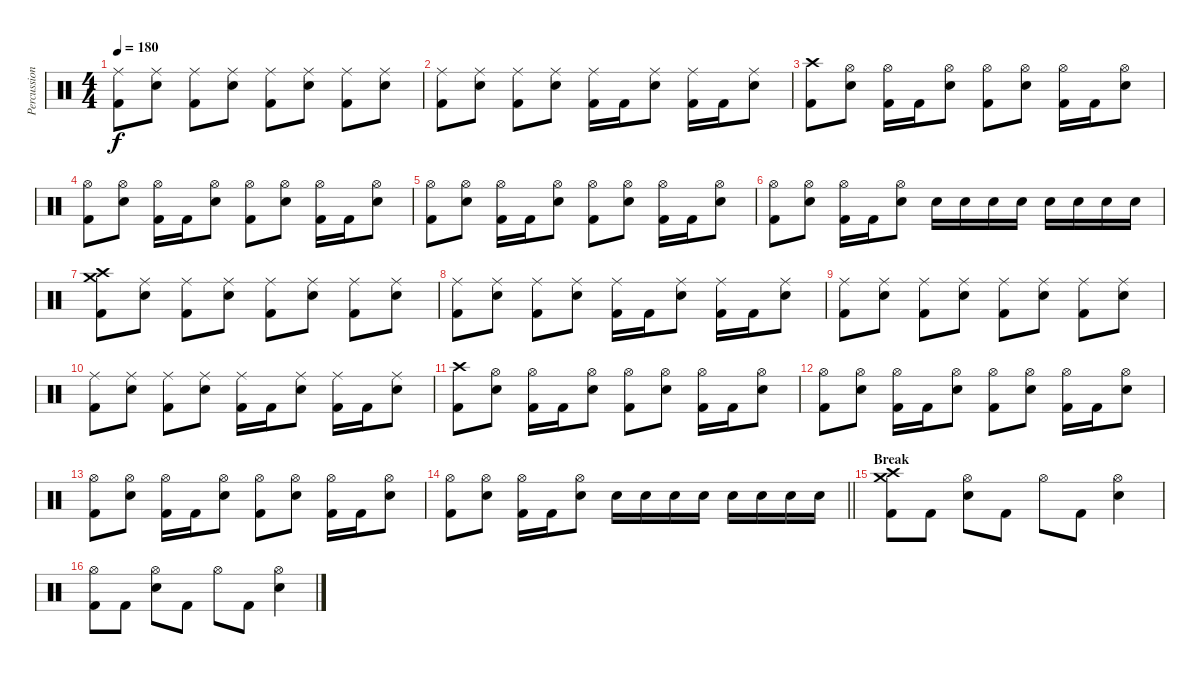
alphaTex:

\track ("Percussion" "Percussion") {instrument percussion}
\staff {score}
\articulation defaults
\ts (4 4)
\tempo 180
\clef neutral
\ks c
("Ride (middle)" "Kick (hit) 2").8{dy f} ("Ride (middle)" "Electric Snare (hit)").8 ("Ride (middle)" "Kick (hit) 2").8 ("Ride (middle)" "Electric Snare (hit)").8 ("Ride (middle)" "Kick (hit) 2").8 ("Ride (middle)" "Electric Snare (hit)").8 ("Ride (middle)" "Kick (hit) 2").8 ("Ride (middle)" "Electric Snare (hit)").8 |
("Ride (middle)" "Kick (hit) 2").8 ("Ride (middle)" "Electric Snare (hit)").8 ("Ride (middle)" "Kick (hit) 2").8 ("Ride (middle)" "Electric Snare (hit)").8 ("Ride (middle)" "Kick (hit) 2").16 "Kick (hit) 2".16 ("Ride (middle)" "Electric Snare (hit)").8 ("Ride (middle)" "Kick (hit) 2").16 "Kick (hit) 2".16 ("Ride (middle)" "Electric Snare (hit)").8 |
("Crash high (hit)" "Kick (hit) 2").8 ("Hi-Hat (open)" "Electric Snare (hit)").8 ("Hi-Hat (open)" "Kick (hit) 2").16 "Kick (hit) 2".16 ("Hi-Hat (open)" "Electric Snare (hit)").8 ("Hi-Hat (open)" "Kick (hit) 2").8 ("Hi-Hat (open)" "Electric Snare (hit)").8 ("Hi-Hat (open)" "Kick (hit) 2").16 "Kick (hit) 2".16 ("Hi-Hat (open)" "Electric Snare (hit)").8 |
("Hi-Hat (open)" "Kick (hit) 2").8 ("Hi-Hat (open)" "Electric Snare (hit)").8 ("Hi-Hat (open)" "Kick (hit) 2").16 "Kick (hit) 2".16 ("Hi-Hat (open)" "Electric Snare (hit)").8 ("Hi-Hat (open)" "Kick (hit) 2").8 ("Hi-Hat (open)" "Electric Snare (hit)").8 ("Hi-Hat (open)" "Kick (hit) 2").16 "Kick (hit) 2".16 ("Hi-Hat (open)" "Electric Snare (hit)").8 |
("Hi-Hat (open)" "Kick (hit) 2").8 ("Hi-Hat (open)" "Electric Snare (hit)").8 ("Hi-Hat (open)" "Kick (hit) 2").16 "Kick (hit) 2".16 ("Hi-Hat (open)" "Electric Snare (hit)").8 ("Hi-Hat (open)" "Kick (hit) 2").8 ("Hi-Hat (open)" "Electric Snare (hit)").8 ("Hi-Hat (open)" "Kick (hit) 2").16 "Kick (hit) 2".16 ("Hi-Hat (open)" "Electric Snare (hit)").8 |
("Hi-Hat (open)" "Kick (hit) 2").8 ("Hi-Hat (open)" "Electric Snare (hit)").8 ("Hi-Hat (open)" "Kick (hit) 2").16 "Kick (hit) 2".16 ("Hi-Hat (open)" "Electric Snare (hit)").8 "Electric Snare (hit)".16 "Electric Snare (hit)".16 "Electric Snare (hit)".16 "Electric Snare (hit)".16 "Electric Snare (hit)".16 "Electric Snare (hit)".16 "Electric Snare (hit)".16 "Electric Snare (hit)".16 |
("Crash high (hit)" "Crash medium (hit)" "Kick (hit) 2").8 ("Ride (middle)" "Electric Snare (hit)").8 ("Ride (middle)" "Kick (hit) 2").8 ("Ride (middle)" "Electric Snare (hit)").8 ("Ride (middle)" "Kick (hit) 2").8 ("Ride (middle)" "Electric Snare (hit)").8 ("Ride (middle)" "Kick (hit) 2").8 ("Ride (middle)" "Electric Snare (hit)").8 |
("Ride (middle)" "Kick (hit) 2").8 ("Ride (middle)" "Electric Snare (hit)").8 ("Ride (middle)" "Kick (hit) 2").8 ("Ride (middle)" "Electric Snare (hit)").8 ("Ride (middle)" "Kick (hit) 2").16 "Kick (hit) 2".16 ("Ride (middle)" "Electric Snare (hit)").8 ("Ride (middle)" "Kick (hit) 2").16 "Kick (hit) 2".16 ("Ride (middle)" "Electric Snare (hit)").8 |
("Ride (middle)" "Kick (hit) 2").8 ("Ride (middle)" "Electric Snare (hit)").8 ("Ride (middle)" "Kick (hit) 2").8 ("Ride (middle)" "Electric Snare (hit)").8 ("Ride (middle)" "Kick (hit) 2").8 ("Ride (middle)" "Electric Snare (hit)").8 ("Ride (middle)" "Kick (hit) 2").8 ("Ride (middle)" "Electric Snare (hit)").8 |
("Ride (middle)" "Kick (hit) 2").8 ("Ride (middle)" "Electric Snare (hit)").8 ("Ride (middle)" "Kick (hit) 2").8 ("Ride (middle)" "Electric Snare (hit)").8 ("Ride (middle)" "Kick (hit) 2").16 "Kick (hit) 2".16 ("Ride (middle)" "Electric Snare (hit)").8 ("Ride (middle)" "Kick (hit) 2").16 "Kick (hit) 2".16 ("Ride (middle)" "Electric Snare (hit)").8 |
("Crash high (hit)" "Kick (hit) 2").8 ("Hi-Hat (open)" "Electric Snare (hit)").8 ("Hi-Hat (open)" "Kick (hit) 2").16 "Kick (hit) 2".16 ("Hi-Hat (open)" "Electric Snare (hit)").8 ("Hi-Hat (open)" "Kick (hit) 2").8 ("Hi-Hat (open)" "Electric Snare (hit)").8 ("Hi-Hat (open)" "Kick (hit) 2").16 "Kick (hit) 2".16 ("Hi-Hat (open)" "Electric Snare (hit)").8 |
("Hi-Hat (open)" "Kick (hit) 2").8 ("Hi-Hat (open)" "Electric Snare (hit)").8 ("Hi-Hat (open)" "Kick (hit) 2").16 "Kick (hit) 2".16 ("Hi-Hat (open)" "Electric Snare (hit)").8 ("Hi-Hat (open)" "Kick (hit) 2").8 ("Hi-Hat (open)" "Electric Snare (hit)").8 ("Hi-Hat (open)" "Kick (hit) 2").16 "Kick (hit) 2".16 ("Hi-Hat (open)" "Electric Snare (hit)").8 |
("Hi-Hat (open)" "Kick (hit) 2").8 ("Hi-Hat (open)" "Electric Snare (hit)").8 ("Hi-Hat (open)" "Kick (hit) 2").16 "Kick (hit) 2".16 ("Hi-Hat (open)" "Electric Snare (hit)").8 ("Hi-Hat (open)" "Kick (hit) 2").8 ("Hi-Hat (open)" "Electric Snare (hit)").8 ("Hi-Hat (open)" "Kick (hit) 2").16 "Kick (hit) 2".16 ("Hi-Hat (open)" "Electric Snare (hit)").8 |
\barLineRight lightlight
("Hi-Hat (open)" "Kick (hit) 2").8 ("Hi-Hat (open)" "Electric Snare (hit)").8 ("Hi-Hat (open)" "Kick (hit) 2").16 "Kick (hit) 2".16 ("Hi-Hat (open)" "Electric Snare (hit)").8 "Electric Snare (hit)".16 "Electric Snare (hit)".16 "Electric Snare (hit)".16 "Electric Snare (hit)".16 "Electric Snare (hit)".16 "Electric Snare (hit)".16 "Electric Snare (hit)".16 "Electric Snare (hit)".16 |
\section ("" "Break")
("Crash medium (hit)" "Crash high (hit)" "Kick (hit) 2").8 "Kick (hit) 2".8 ("Hi-Hat (open)" "Electric Snare (hit)").8 "Kick (hit) 2".8 "Hi-Hat (open)".8 "Kick (hit) 2".8 ("Hi-Hat (open)" "Electric Snare (hit)").4 |
("Hi-Hat (open)" "Kick (hit) 2").8 "Kick (hit) 2".8 ("Hi-Hat (open)" "Electric Snare (hit)").8 "Kick (hit) 2".8 "Hi-Hat (open)".8 "Kick (hit) 2".8 ("Hi-Hat (open)" "Electric Snare (hit)").4
